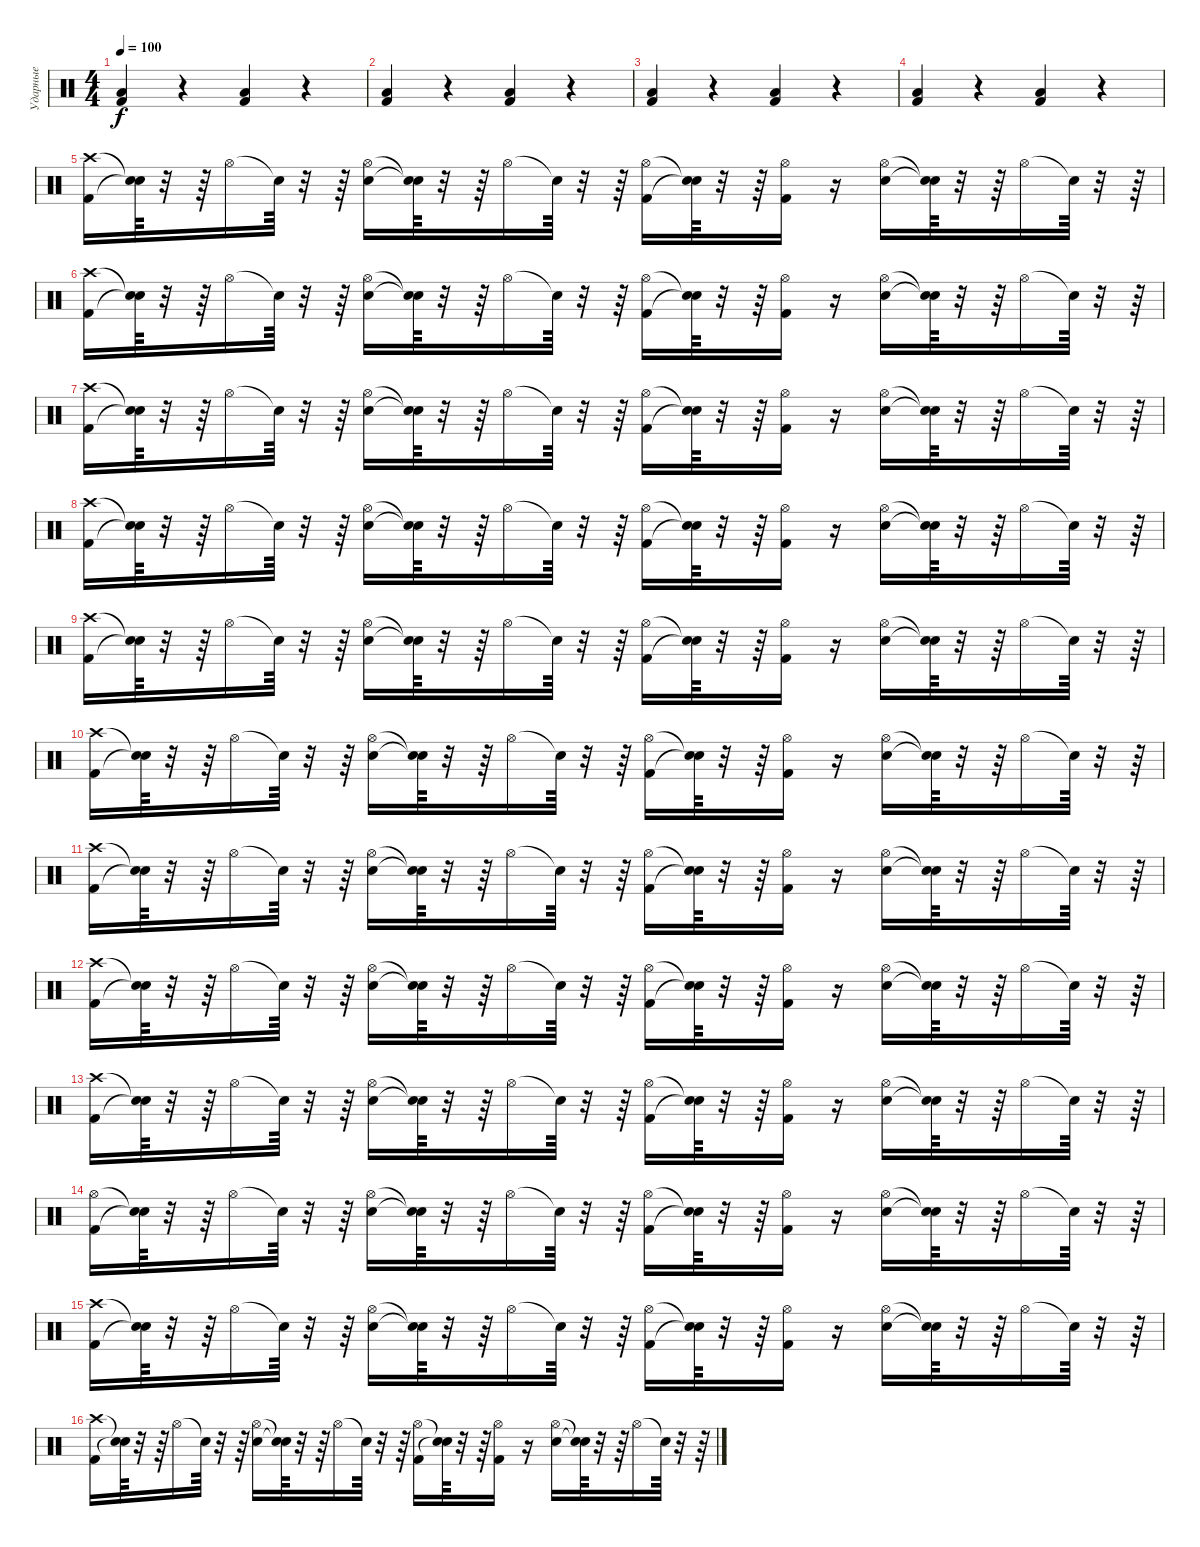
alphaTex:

\track ("Ударные" "Ударные") {instrument percussion}
\staff {score}
\articulation defaults
\ts (4 4)
\tempo 100
\clef neutral
\ks c
("Kick (hit) 2" "Low Floor Tom (hit)").4{dy f} r.4 ("Kick (hit) 2" "Low Floor Tom (hit)").4 r.4 |
("Kick (hit) 2" "Low Floor Tom (hit)").4 r.4 ("Kick (hit) 2" "Low Floor Tom (hit)").4 r.4 |
("Kick (hit) 2" "Low Floor Tom (hit)").4 r.4 ("Kick (hit) 2" "Low Floor Tom (hit)").4 r.4 |
("Kick (hit) 2" "Low Floor Tom (hit)").4 r.4 ("Kick (hit) 2" "Low Floor Tom (hit)").4 r.4 |
("Crash high (hit)" "Kick (hit) 2").16 ("Snare (hit)"{t} "Snare (hit)"{t}).64 r.32 r.64 "Hi-Hat (open)".16 "Snare (hit)"{t}.64 r.32 r.64 ("Hi-Hat (open)" "Electric Snare (hit)").16 ("Snare (hit)"{t} "Snare (hit)"{t}).64 r.32 r.64 "Hi-Hat (open)".16 "Snare (hit)"{t}.64 r.32 r.64 ("Hi-Hat (open)" "Kick (hit) 2").16 ("Snare (hit)"{t} "Snare (hit)"{t}).64 r.32 r.64 ("Kick (hit) 2" "Hi-Hat (open)").16 r.16 ("Hi-Hat (open)" "Electric Snare (hit)").16 ("Snare (hit)"{t} "Snare (hit)"{t}).64 r.32 r.64 "Hi-Hat (open)".16 "Snare (hit)"{t}.64 r.32 r.64 |
("Crash high (hit)" "Kick (hit) 2").16 ("Snare (hit)"{t} "Snare (hit)"{t}).64 r.32 r.64 "Hi-Hat (open)".16 "Snare (hit)"{t}.64 r.32 r.64 ("Hi-Hat (open)" "Electric Snare (hit)").16 ("Snare (hit)"{t} "Snare (hit)"{t}).64 r.32 r.64 "Hi-Hat (open)".16 "Snare (hit)"{t}.64 r.32 r.64 ("Hi-Hat (open)" "Kick (hit) 2").16 ("Snare (hit)"{t} "Snare (hit)"{t}).64 r.32 r.64 ("Kick (hit) 2" "Hi-Hat (open)").16 r.16 ("Hi-Hat (open)" "Electric Snare (hit)").16 ("Snare (hit)"{t} "Snare (hit)"{t}).64 r.32 r.64 "Hi-Hat (open)".16 "Snare (hit)"{t}.64 r.32 r.64 |
("Crash high (hit)" "Kick (hit) 2").16 ("Snare (hit)"{t} "Snare (hit)"{t}).64 r.32 r.64 "Hi-Hat (open)".16 "Snare (hit)"{t}.64 r.32 r.64 ("Hi-Hat (open)" "Electric Snare (hit)").16 ("Snare (hit)"{t} "Snare (hit)"{t}).64 r.32 r.64 "Hi-Hat (open)".16 "Snare (hit)"{t}.64 r.32 r.64 ("Hi-Hat (open)" "Kick (hit) 2").16 ("Snare (hit)"{t} "Snare (hit)"{t}).64 r.32 r.64 ("Kick (hit) 2" "Hi-Hat (open)").16 r.16 ("Hi-Hat (open)" "Electric Snare (hit)").16 ("Snare (hit)"{t} "Snare (hit)"{t}).64 r.32 r.64 "Hi-Hat (open)".16 "Snare (hit)"{t}.64 r.32 r.64 |
("Crash high (hit)" "Kick (hit) 2").16 ("Snare (hit)"{t} "Snare (hit)"{t}).64 r.32 r.64 "Hi-Hat (open)".16 "Snare (hit)"{t}.64 r.32 r.64 ("Hi-Hat (open)" "Electric Snare (hit)").16 ("Snare (hit)"{t} "Snare (hit)"{t}).64 r.32 r.64 "Hi-Hat (open)".16 "Snare (hit)"{t}.64 r.32 r.64 ("Hi-Hat (open)" "Kick (hit) 2").16 ("Snare (hit)"{t} "Snare (hit)"{t}).64 r.32 r.64 ("Kick (hit) 2" "Hi-Hat (open)").16 r.16 ("Hi-Hat (open)" "Electric Snare (hit)").16 ("Snare (hit)"{t} "Snare (hit)"{t}).64 r.32 r.64 "Hi-Hat (open)".16 "Snare (hit)"{t}.64 r.32 r.64 |
("Crash high (hit)" "Kick (hit) 2").16 ("Snare (hit)"{t} "Snare (hit)"{t}).64 r.32 r.64 "Hi-Hat (open)".16 "Snare (hit)"{t}.64 r.32 r.64 ("Hi-Hat (open)" "Electric Snare (hit)").16 ("Snare (hit)"{t} "Snare (hit)"{t}).64 r.32 r.64 "Hi-Hat (open)".16 "Snare (hit)"{t}.64 r.32 r.64 ("Hi-Hat (open)" "Kick (hit) 2").16 ("Snare (hit)"{t} "Snare (hit)"{t}).64 r.32 r.64 ("Kick (hit) 2" "Hi-Hat (open)").16 r.16 ("Hi-Hat (open)" "Electric Snare (hit)").16 ("Snare (hit)"{t} "Snare (hit)"{t}).64 r.32 r.64 "Hi-Hat (open)".16 "Snare (hit)"{t}.64 r.32 r.64 |
("Crash high (hit)" "Kick (hit) 2").16 ("Snare (hit)"{t} "Snare (hit)"{t}).64 r.32 r.64 "Hi-Hat (open)".16 "Snare (hit)"{t}.64 r.32 r.64 ("Hi-Hat (open)" "Electric Snare (hit)").16 ("Snare (hit)"{t} "Snare (hit)"{t}).64 r.32 r.64 "Hi-Hat (open)".16 "Snare (hit)"{t}.64 r.32 r.64 ("Hi-Hat (open)" "Kick (hit) 2").16 ("Snare (hit)"{t} "Snare (hit)"{t}).64 r.32 r.64 ("Kick (hit) 2" "Hi-Hat (open)").16 r.16 ("Hi-Hat (open)" "Electric Snare (hit)").16 ("Snare (hit)"{t} "Snare (hit)"{t}).64 r.32 r.64 "Hi-Hat (open)".16 "Snare (hit)"{t}.64 r.32 r.64 |
("Crash high (hit)" "Kick (hit) 2").16 ("Snare (hit)"{t} "Snare (hit)"{t}).64 r.32 r.64 "Hi-Hat (open)".16 "Snare (hit)"{t}.64 r.32 r.64 ("Hi-Hat (open)" "Electric Snare (hit)").16 ("Snare (hit)"{t} "Snare (hit)"{t}).64 r.32 r.64 "Hi-Hat (open)".16 "Snare (hit)"{t}.64 r.32 r.64 ("Hi-Hat (open)" "Kick (hit) 2").16 ("Snare (hit)"{t} "Snare (hit)"{t}).64 r.32 r.64 ("Kick (hit) 2" "Hi-Hat (open)").16 r.16 ("Hi-Hat (open)" "Electric Snare (hit)").16 ("Snare (hit)"{t} "Snare (hit)"{t}).64 r.32 r.64 "Hi-Hat (open)".16 "Snare (hit)"{t}.64 r.32 r.64 |
("Crash high (hit)" "Kick (hit) 2").16 ("Snare (hit)"{t} "Snare (hit)"{t}).64 r.32 r.64 "Hi-Hat (open)".16 "Snare (hit)"{t}.64 r.32 r.64 ("Hi-Hat (open)" "Electric Snare (hit)").16 ("Snare (hit)"{t} "Snare (hit)"{t}).64 r.32 r.64 "Hi-Hat (open)".16 "Snare (hit)"{t}.64 r.32 r.64 ("Hi-Hat (open)" "Kick (hit) 2").16 ("Snare (hit)"{t} "Snare (hit)"{t}).64 r.32 r.64 ("Kick (hit) 2" "Hi-Hat (open)").16 r.16 ("Hi-Hat (open)" "Electric Snare (hit)").16 ("Snare (hit)"{t} "Snare (hit)"{t}).64 r.32 r.64 "Hi-Hat (open)".16 "Snare (hit)"{t}.64 r.32 r.64 |
("Crash high (hit)" "Kick (hit) 2").16 ("Snare (hit)"{t} "Snare (hit)"{t}).64 r.32 r.64 "Hi-Hat (open)".16 "Snare (hit)"{t}.64 r.32 r.64 ("Hi-Hat (open)" "Electric Snare (hit)").16 ("Snare (hit)"{t} "Snare (hit)"{t}).64 r.32 r.64 "Hi-Hat (open)".16 "Snare (hit)"{t}.64 r.32 r.64 ("Hi-Hat (open)" "Kick (hit) 2").16 ("Snare (hit)"{t} "Snare (hit)"{t}).64 r.32 r.64 ("Kick (hit) 2" "Hi-Hat (open)").16 r.16 ("Hi-Hat (open)" "Electric Snare (hit)").16 ("Snare (hit)"{t} "Snare (hit)"{t}).64 r.32 r.64 "Hi-Hat (open)".16 "Snare (hit)"{t}.64 r.32 r.64 |
("Hi-Hat (open)" "Kick (hit) 2").16 ("Snare (hit)"{t} "Snare (hit)"{t}).64 r.32 r.64 "Hi-Hat (open)".16 "Snare (hit)"{t}.64 r.32 r.64 ("Hi-Hat (open)" "Electric Snare (hit)").16 ("Snare (hit)"{t} "Snare (hit)"{t}).64 r.32 r.64 "Hi-Hat (open)".16 "Snare (hit)"{t}.64 r.32 r.64 ("Hi-Hat (open)" "Kick (hit) 2").16 ("Snare (hit)"{t} "Snare (hit)"{t}).64 r.32 r.64 ("Kick (hit) 2" "Hi-Hat (open)").16 r.16 ("Hi-Hat (open)" "Electric Snare (hit)").16 ("Snare (hit)"{t} "Snare (hit)"{t}).64 r.32 r.64 "Hi-Hat (open)".16 "Snare (hit)"{t}.64 r.32 r.64 |
("Crash high (hit)" "Kick (hit) 2").16 ("Snare (hit)"{t} "Snare (hit)"{t}).64 r.32 r.64 "Hi-Hat (open)".16 "Snare (hit)"{t}.64 r.32 r.64 ("Hi-Hat (open)" "Electric Snare (hit)").16 ("Snare (hit)"{t} "Snare (hit)"{t}).64 r.32 r.64 "Hi-Hat (open)".16 "Snare (hit)"{t}.64 r.32 r.64 ("Hi-Hat (open)" "Kick (hit) 2").16 ("Snare (hit)"{t} "Snare (hit)"{t}).64 r.32 r.64 ("Kick (hit) 2" "Hi-Hat (open)").16 r.16 ("Hi-Hat (open)" "Electric Snare (hit)").16 ("Snare (hit)"{t} "Snare (hit)"{t}).64 r.32 r.64 "Hi-Hat (open)".16 "Snare (hit)"{t}.64 r.32 r.64 |
("Crash high (hit)" "Kick (hit) 2").16 ("Snare (hit)"{t} "Snare (hit)"{t}).64 r.32 r.64 "Hi-Hat (open)".16 "Snare (hit)"{t}.64 r.32 r.64 ("Hi-Hat (open)" "Electric Snare (hit)").16 ("Snare (hit)"{t} "Snare (hit)"{t}).64 r.32 r.64 "Hi-Hat (open)".16 "Snare (hit)"{t}.64 r.32 r.64 ("Hi-Hat (open)" "Kick (hit) 2").16 ("Snare (hit)"{t} "Snare (hit)"{t}).64 r.32 r.64 ("Kick (hit) 2" "Hi-Hat (open)").16 r.16 ("Hi-Hat (open)" "Electric Snare (hit)").16 ("Snare (hit)"{t} "Snare (hit)"{t}).64 r.32 r.64 "Hi-Hat (open)".16 "Snare (hit)"{t}.64 r.32 r.64
